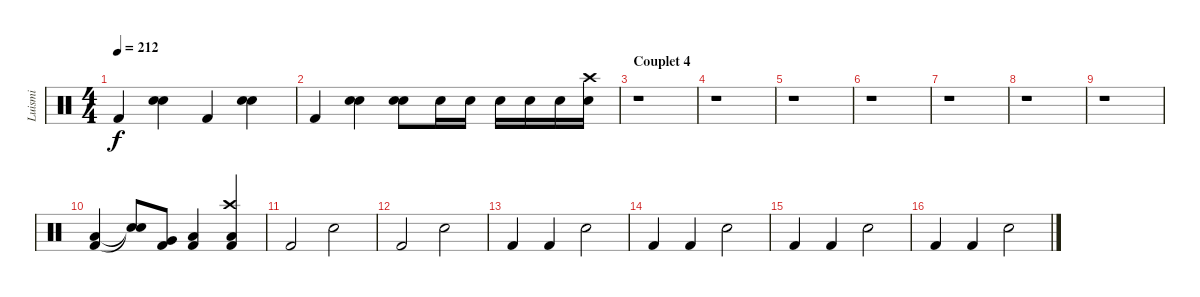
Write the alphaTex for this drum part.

\track ("Luismi" "Luismi") {instrument percussion}
\staff {score}
\articulation defaults
\ts (4 4)
\tempo 212
\clef neutral
\ks c "Kick (hit) 2".4{dy f}
("Snare (hit) 2" "Electric Snare (hit)").4 "Kick (hit) 2".4 ("Electric Snare (hit)" "Snare (hit) 2").4 |
"Kick (hit) 2".4 ("Snare (hit) 2" "Electric Snare (hit)").4 ("Snare (hit) 2" "Electric Snare (hit)").8 "Electric Snare (hit)".16 "Electric Snare (hit)".16 "Electric Snare (hit)".16 "Electric Snare (hit)".16 "Electric Snare (hit)".16 ("Crash high (hit)" "Electric Snare (hit)").16 |
\section ("" "Couplet 4")
r.1 |
r.1 |
r.1 |
r.1 |
r.1 |
r.1 |
r.1 |
("Low Tom (hit)" "Kick (hit) 2").4 ("Snare (hit)"{t} "Snare (hit)"{t}).8 ("Very Low Tom (hit)" "Kick (hit) 2").8 ("Low Floor Tom (hit)" "Kick (hit) 2").4 ("Crash high (hit)" "Low Floor Tom (hit)" "Kick (hit) 2").4 |
"Kick (hit) 2".2 "Snare (hit) 2".2 |
"Kick (hit) 2".2 "Snare (hit) 2".2 |
"Kick (hit) 2".4 "Kick (hit) 2".4 "Snare (hit) 2".2 |
"Kick (hit) 2".4 "Kick (hit) 2".4 "Snare (hit) 2".2 |
"Kick (hit) 2".4 "Kick (hit) 2".4 "Snare (hit) 2".2 |
"Kick (hit) 2".4 "Kick (hit) 2".4 "Snare (hit) 2".2
